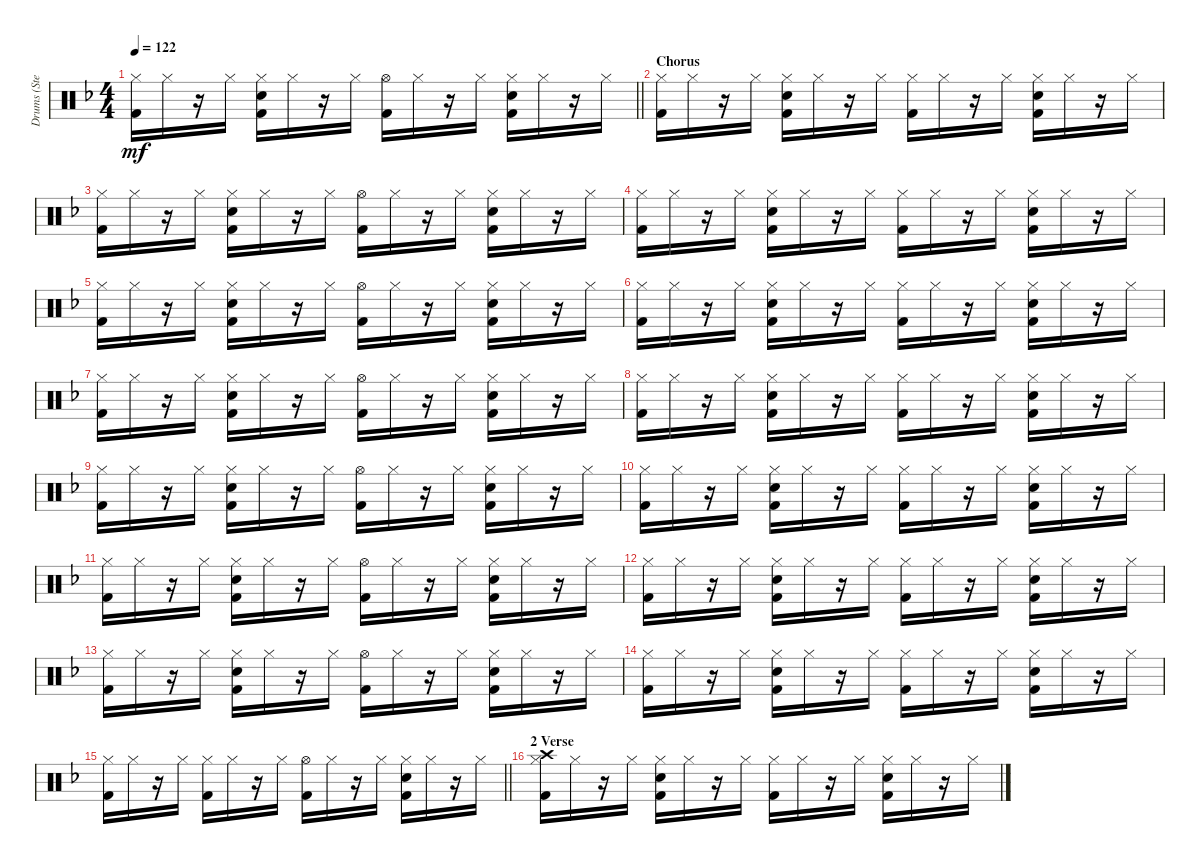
\track ("Drums (Stephen Morris)" "Drums (Ste") {instrument percussion}
\staff {score}
\articulation defaults
\ts (4 4)
\tempo 122
\clef neutral
\barLineRight lightlight
\ks f
("Kick (hit) 2" "Hi-Hat (closed)").16{dy mf} "Hi-Hat (closed)".16 r.16 "Hi-Hat (closed)".16 ("Kick (hit) 2" "Snare (hit) 2" "Hi-Hat (closed)").16 "Hi-Hat (closed)".16 r.16 "Hi-Hat (closed)".16 ("Kick (hit) 2" "Hi-Hat (open)").16 "Hi-Hat (closed)".16 r.16 "Hi-Hat (closed)".16 ("Hi-Hat (closed)" "Snare (hit) 2" "Kick (hit) 2").16 "Hi-Hat (closed)".16 r.16 "Hi-Hat (closed)".16 |
\section ("" "Chorus")
("Hi-Hat (closed)" "Kick (hit) 2").16 "Hi-Hat (closed)".16 r.16 "Hi-Hat (closed)".16 ("Hi-Hat (closed)" "Kick (hit) 2" "Snare (hit) 2").16 "Hi-Hat (closed)".16 r.16 "Hi-Hat (closed)".16 ("Kick (hit) 2" "Hi-Hat (closed)").16 "Hi-Hat (closed)".16 r.16 "Hi-Hat (closed)".16 ("Kick (hit) 2" "Snare (hit) 2" "Hi-Hat (closed)").16 "Hi-Hat (closed)".16 r.16 "Hi-Hat (closed)".16 |
("Hi-Hat (closed)" "Kick (hit) 2").16 "Hi-Hat (closed)".16 r.16 "Hi-Hat (closed)".16 ("Hi-Hat (closed)" "Snare (hit) 2" "Kick (hit) 2").16 "Hi-Hat (closed)".16 r.16 "Hi-Hat (closed)".16 ("Kick (hit) 2" "Hi-Hat (open)").16 "Hi-Hat (closed)".16 r.16 "Hi-Hat (closed)".16 ("Hi-Hat (closed)" "Snare (hit) 2" "Kick (hit) 2").16 "Hi-Hat (closed)".16 r.16 "Hi-Hat (closed)".16 |
("Hi-Hat (closed)" "Kick (hit) 2").16 "Hi-Hat (closed)".16 r.16 "Hi-Hat (closed)".16 ("Hi-Hat (closed)" "Snare (hit) 2" "Kick (hit) 2").16 "Hi-Hat (closed)".16 r.16 "Hi-Hat (closed)".16 ("Kick (hit) 2" "Hi-Hat (closed)").16 "Hi-Hat (closed)".16 r.16 "Hi-Hat (closed)".16 ("Hi-Hat (closed)" "Snare (hit) 2" "Kick (hit) 2").16 "Hi-Hat (closed)".16 r.16 "Hi-Hat (closed)".16 |
("Kick (hit) 2" "Hi-Hat (closed)").16 "Hi-Hat (closed)".16 r.16 "Hi-Hat (closed)".16 ("Hi-Hat (closed)" "Snare (hit) 2" "Kick (hit) 2").16 "Hi-Hat (closed)".16 r.16 "Hi-Hat (closed)".16 ("Kick (hit) 2" "Hi-Hat (open)").16 "Hi-Hat (closed)".16 r.16 "Hi-Hat (closed)".16 ("Kick (hit) 2" "Snare (hit) 2" "Hi-Hat (closed)").16 "Hi-Hat (closed)".16 r.16 "Hi-Hat (closed)".16 |
("Kick (hit) 2" "Hi-Hat (closed)").16 "Hi-Hat (closed)".16 r.16 "Hi-Hat (closed)".16 ("Hi-Hat (closed)" "Snare (hit) 2" "Kick (hit) 2").16 "Hi-Hat (closed)".16 r.16 "Hi-Hat (closed)".16 ("Kick (hit) 2" "Hi-Hat (closed)").16 "Hi-Hat (closed)".16 r.16 "Hi-Hat (closed)".16 ("Kick (hit) 2" "Snare (hit) 2" "Hi-Hat (closed)").16 "Hi-Hat (closed)".16 r.16 "Hi-Hat (closed)".16 |
("Kick (hit) 2" "Hi-Hat (closed)").16 "Hi-Hat (closed)".16 r.16 "Hi-Hat (closed)".16 ("Hi-Hat (closed)" "Snare (hit) 2" "Kick (hit) 2").16 "Hi-Hat (closed)".16 r.16 "Hi-Hat (closed)".16 ("Hi-Hat (open)" "Kick (hit) 2").16 "Hi-Hat (closed)".16 r.16 "Hi-Hat (closed)".16 ("Hi-Hat (closed)" "Snare (hit) 2" "Kick (hit) 2").16 "Hi-Hat (closed)".16 r.16 "Hi-Hat (closed)".16 |
("Kick (hit) 2" "Hi-Hat (closed)").16 "Hi-Hat (closed)".16 r.16 "Hi-Hat (closed)".16 ("Kick (hit) 2" "Snare (hit) 2" "Hi-Hat (closed)").16 "Hi-Hat (closed)".16 r.16 "Hi-Hat (closed)".16 ("Hi-Hat (closed)" "Kick (hit) 2").16 "Hi-Hat (closed)".16 r.16 "Hi-Hat (closed)".16 ("Hi-Hat (closed)" "Snare (hit) 2" "Kick (hit) 2").16 "Hi-Hat (closed)".16 r.16 "Hi-Hat (closed)".16 |
("Kick (hit) 2" "Hi-Hat (closed)").16 "Hi-Hat (closed)".16 r.16 "Hi-Hat (closed)".16 ("Hi-Hat (closed)" "Snare (hit) 2" "Kick (hit) 2").16 "Hi-Hat (closed)".16 r.16 "Hi-Hat (closed)".16 ("Hi-Hat (open)" "Kick (hit) 2").16 "Hi-Hat (closed)".16 r.16 "Hi-Hat (closed)".16 ("Hi-Hat (closed)" "Snare (hit) 2" "Kick (hit) 2").16 "Hi-Hat (closed)".16 r.16 "Hi-Hat (closed)".16 |
("Kick (hit) 2" "Hi-Hat (closed)").16 "Hi-Hat (closed)".16 r.16 "Hi-Hat (closed)".16 ("Hi-Hat (closed)" "Snare (hit) 2" "Kick (hit) 2").16 "Hi-Hat (closed)".16 r.16 "Hi-Hat (closed)".16 ("Kick (hit) 2" "Hi-Hat (closed)").16 "Hi-Hat (closed)".16 r.16 "Hi-Hat (closed)".16 ("Hi-Hat (closed)" "Snare (hit) 2" "Kick (hit) 2").16 "Hi-Hat (closed)".16 r.16 "Hi-Hat (closed)".16 |
("Kick (hit) 2" "Hi-Hat (closed)").16 "Hi-Hat (closed)".16 r.16 "Hi-Hat (closed)".16 ("Kick (hit) 2" "Snare (hit) 2" "Hi-Hat (closed)").16 "Hi-Hat (closed)".16 r.16 "Hi-Hat (closed)".16 ("Kick (hit) 2" "Hi-Hat (open)").16 "Hi-Hat (closed)".16 r.16 "Hi-Hat (closed)".16 ("Hi-Hat (closed)" "Snare (hit) 2" "Kick (hit) 2").16 "Hi-Hat (closed)".16 r.16 "Hi-Hat (closed)".16 |
("Kick (hit) 2" "Hi-Hat (closed)").16 "Hi-Hat (closed)".16 r.16 "Hi-Hat (closed)".16 ("Kick (hit) 2" "Snare (hit) 2" "Hi-Hat (closed)").16 "Hi-Hat (closed)".16 r.16 "Hi-Hat (closed)".16 ("Kick (hit) 2" "Hi-Hat (closed)").16 "Hi-Hat (closed)".16 r.16 "Hi-Hat (closed)".16 ("Hi-Hat (closed)" "Snare (hit) 2" "Kick (hit) 2").16 "Hi-Hat (closed)".16 r.16 "Hi-Hat (closed)".16 |
("Hi-Hat (closed)" "Kick (hit) 2").16 "Hi-Hat (closed)".16 r.16 "Hi-Hat (closed)".16 ("Hi-Hat (closed)" "Snare (hit) 2" "Kick (hit) 2").16 "Hi-Hat (closed)".16 r.16 "Hi-Hat (closed)".16 ("Kick (hit) 2" "Hi-Hat (open)").16 "Hi-Hat (closed)".16 r.16 "Hi-Hat (closed)".16 ("Kick (hit) 2" "Snare (hit) 2" "Hi-Hat (closed)").16 "Hi-Hat (closed)".16 r.16 "Hi-Hat (closed)".16 |
("Hi-Hat (closed)" "Kick (hit) 2").16 "Hi-Hat (closed)".16 r.16 "Hi-Hat (closed)".16 ("Hi-Hat (closed)" "Kick (hit) 2" "Snare (hit) 2").16 "Hi-Hat (closed)".16 r.16 "Hi-Hat (closed)".16 ("Kick (hit) 2" "Hi-Hat (closed)").16 "Hi-Hat (closed)".16 r.16 "Hi-Hat (closed)".16 ("Kick (hit) 2" "Snare (hit) 2" "Hi-Hat (closed)").16 "Hi-Hat (closed)".16 r.16 "Hi-Hat (closed)".16 |
\barLineRight lightlight
("Kick (hit) 2" "Hi-Hat (closed)").16 "Hi-Hat (closed)".16 r.16 "Hi-Hat (closed)".16 ("Kick (hit) 2" "Hi-Hat (closed)").16 "Hi-Hat (closed)".16 r.16 "Hi-Hat (closed)".16 ("Hi-Hat (open)" "Kick (hit) 2").16 "Hi-Hat (closed)".16 r.16 "Hi-Hat (closed)".16 ("Hi-Hat (closed)" "Kick (hit) 2" "Snare (hit) 2").16 "Hi-Hat (closed)".16 r.16 "Hi-Hat (closed)".16 |
\section ("" "2 Verse ")
("Hi-Hat (closed)" "Kick (hit) 2" "Crash high (hit)").16 "Hi-Hat (closed)".16 r.16 "Hi-Hat (closed)".16 ("Hi-Hat (closed)" "Snare (hit) 2" "Kick (hit) 2").16 "Hi-Hat (closed)".16 r.16 "Hi-Hat (closed)".16 ("Kick (hit) 2" "Hi-Hat (closed)").16 "Hi-Hat (closed)".16 r.16 "Hi-Hat (closed)".16 ("Kick (hit) 2" "Snare (hit) 2" "Hi-Hat (closed)").16 "Hi-Hat (closed)".16 r.16 "Hi-Hat (closed)".16
